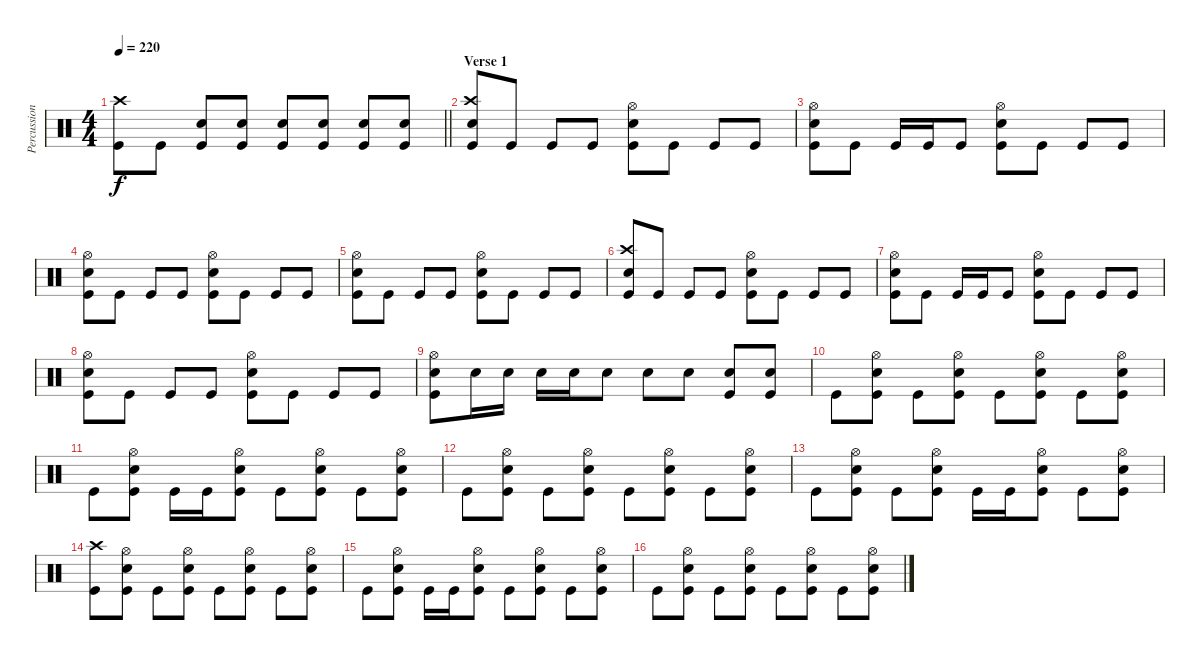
\track ("Percussion" "Percussion") {instrument percussion}
\staff {score}
\articulation defaults
\ts (4 4)
\tempo 220
\clef neutral
\barLineRight lightlight
\ks c
("Kick (hit)" "Crash high (hit)").8{dy f} "Kick (hit)".8 ("Kick (hit)" "Snare (hit) 2").8 ("Kick (hit)" "Snare (hit) 2").8 ("Kick (hit)" "Snare (hit) 2").8 ("Kick (hit)" "Snare (hit) 2").8 ("Kick (hit)" "Snare (hit) 2").8 ("Kick (hit)" "Snare (hit) 2").8 |
\section ("" "Verse 1")
("Kick (hit)" "Snare (hit) 2" "Crash high (hit)").8 "Kick (hit)".8 "Kick (hit)".8 "Kick (hit)".8 ("Kick (hit)" "Snare (hit) 2" "Hi-Hat (open)").8 "Kick (hit)".8 "Kick (hit)".8 "Kick (hit)".8 |
("Kick (hit)" "Snare (hit) 2" "Hi-Hat (open)").8 "Kick (hit)".8 "Kick (hit)".16 "Kick (hit)".16 "Kick (hit)".8 ("Kick (hit)" "Snare (hit) 2" "Hi-Hat (open)").8 "Kick (hit)".8 "Kick (hit)".8 "Kick (hit)".8 |
("Kick (hit)" "Snare (hit) 2" "Hi-Hat (open)").8 "Kick (hit)".8 "Kick (hit)".8 "Kick (hit)".8 ("Kick (hit)" "Snare (hit) 2" "Hi-Hat (open)").8 "Kick (hit)".8 "Kick (hit)".8 "Kick (hit)".8 |
("Kick (hit)" "Snare (hit) 2" "Hi-Hat (open)").8 "Kick (hit)".8 "Kick (hit)".8 "Kick (hit)".8 ("Kick (hit)" "Snare (hit) 2" "Hi-Hat (open)").8 "Kick (hit)".8 "Kick (hit)".8 "Kick (hit)".8 |
("Kick (hit)" "Snare (hit) 2" "Crash high (hit)").8 "Kick (hit)".8 "Kick (hit)".8 "Kick (hit)".8 ("Kick (hit)" "Snare (hit) 2" "Hi-Hat (open)").8 "Kick (hit)".8 "Kick (hit)".8 "Kick (hit)".8 |
("Kick (hit)" "Snare (hit) 2" "Hi-Hat (open)").8 "Kick (hit)".8 "Kick (hit)".16 "Kick (hit)".16 "Kick (hit)".8 ("Kick (hit)" "Snare (hit) 2" "Hi-Hat (open)").8 "Kick (hit)".8 "Kick (hit)".8 "Kick (hit)".8 |
("Kick (hit)" "Snare (hit) 2" "Hi-Hat (open)").8 "Kick (hit)".8 "Kick (hit)".8 "Kick (hit)".8 ("Kick (hit)" "Snare (hit) 2" "Hi-Hat (open)").8 "Kick (hit)".8 "Kick (hit)".8 "Kick (hit)".8 |
("Kick (hit)" "Snare (hit) 2" "Hi-Hat (open)").8 "Snare (hit) 2".16 "Snare (hit) 2".16 "Snare (hit) 2".16 "Snare (hit) 2".16 "Snare (hit) 2".8 "Snare (hit) 2".8 "Snare (hit) 2".8 ("Kick (hit)" "Snare (hit) 2").8 ("Kick (hit)" "Snare (hit) 2").8 |
"Kick (hit)".8 ("Kick (hit)" "Snare (hit) 2" "Hi-Hat (open)").8 "Kick (hit)".8 ("Kick (hit)" "Snare (hit) 2" "Hi-Hat (open)").8 "Kick (hit)".8 ("Kick (hit)" "Snare (hit) 2" "Hi-Hat (open)").8 "Kick (hit)".8 ("Kick (hit)" "Snare (hit) 2" "Hi-Hat (open)").8 |
"Kick (hit)".8 ("Kick (hit)" "Snare (hit) 2" "Hi-Hat (open)").8 "Kick (hit)".16 "Kick (hit)".16 ("Kick (hit)" "Snare (hit) 2" "Hi-Hat (open)").8 "Kick (hit)".8 ("Kick (hit)" "Snare (hit) 2" "Hi-Hat (open)").8 "Kick (hit)".8 ("Kick (hit)" "Snare (hit) 2" "Hi-Hat (open)").8 |
"Kick (hit)".8 ("Kick (hit)" "Snare (hit) 2" "Hi-Hat (open)").8 "Kick (hit)".8 ("Kick (hit)" "Snare (hit) 2" "Hi-Hat (open)").8 "Kick (hit)".8 ("Kick (hit)" "Snare (hit) 2" "Hi-Hat (open)").8 "Kick (hit)".8 ("Kick (hit)" "Snare (hit) 2" "Hi-Hat (open)").8 |
"Kick (hit)".8 ("Kick (hit)" "Snare (hit) 2" "Hi-Hat (open)").8 "Kick (hit)".8 ("Kick (hit)" "Snare (hit) 2" "Hi-Hat (open)").8 "Kick (hit)".16 "Kick (hit)".16 ("Kick (hit)" "Snare (hit) 2" "Hi-Hat (open)").8 "Kick (hit)".8 ("Kick (hit)" "Snare (hit) 2" "Hi-Hat (open)").8 |
("Kick (hit)" "Crash high (hit)").8 ("Kick (hit)" "Snare (hit) 2" "Hi-Hat (open)").8 "Kick (hit)".8 ("Kick (hit)" "Snare (hit) 2" "Hi-Hat (open)").8 "Kick (hit)".8 ("Kick (hit)" "Snare (hit) 2" "Hi-Hat (open)").8 "Kick (hit)".8 ("Kick (hit)" "Snare (hit) 2" "Hi-Hat (open)").8 |
"Kick (hit)".8 ("Kick (hit)" "Snare (hit) 2" "Hi-Hat (open)").8 "Kick (hit)".16 "Kick (hit)".16 ("Kick (hit)" "Snare (hit) 2" "Hi-Hat (open)").8 "Kick (hit)".8 ("Kick (hit)" "Snare (hit) 2" "Hi-Hat (open)").8 "Kick (hit)".8 ("Kick (hit)" "Snare (hit) 2" "Hi-Hat (open)").8 |
"Kick (hit)".8 ("Kick (hit)" "Snare (hit) 2" "Hi-Hat (open)").8 "Kick (hit)".8 ("Kick (hit)" "Snare (hit) 2" "Hi-Hat (open)").8 "Kick (hit)".8 ("Kick (hit)" "Snare (hit) 2" "Hi-Hat (open)").8 "Kick (hit)".8 ("Kick (hit)" "Snare (hit) 2" "Hi-Hat (open)").8
